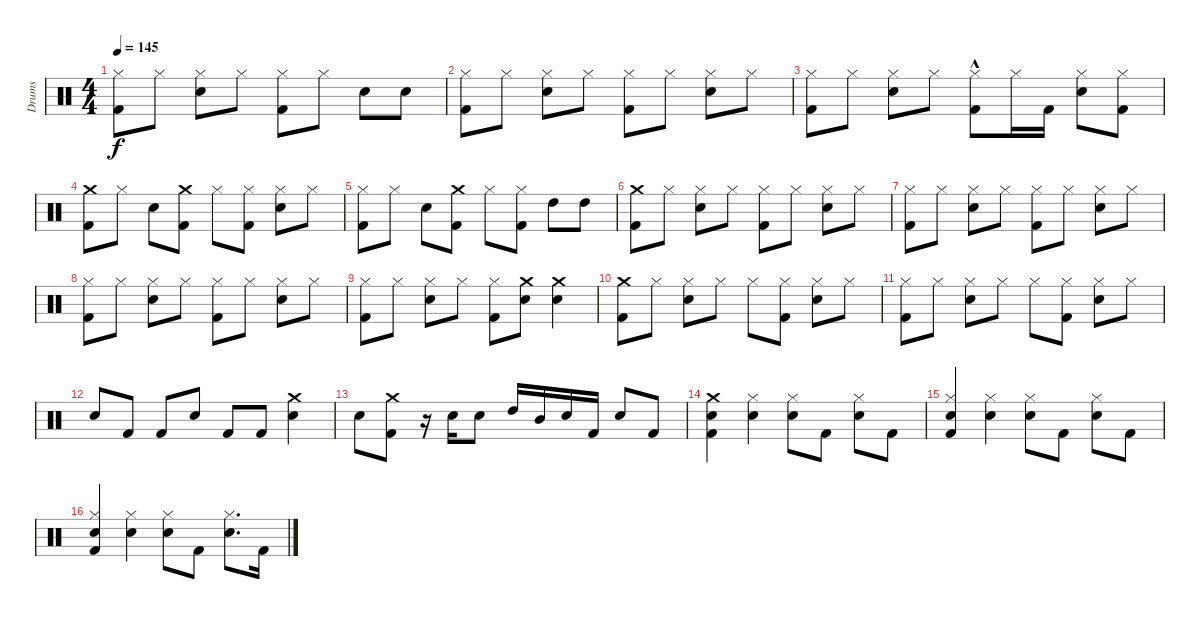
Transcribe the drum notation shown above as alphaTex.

\track ("Drums" "Drums") {instrument percussion}
\staff {score}
\articulation defaults
\ts (4 4)
\tempo 145
\clef neutral
\ks c
("Kick (hit) 2" "Hi-Hat (closed)").8{dy f} "Hi-Hat (closed)".8 ("Snare (hit) 2" "Hi-Hat (closed)").8 "Hi-Hat (closed)".8 ("Kick (hit) 2" "Hi-Hat (closed)").8 "Hi-Hat (closed)".8 "Snare (hit) 2".8 "Snare (hit) 2".8 |
("Kick (hit) 2" "Hi-Hat (closed)").8 "Hi-Hat (closed)".8 ("Snare (hit) 2" "Hi-Hat (closed)").8 "Hi-Hat (closed)".8 ("Kick (hit) 2" "Hi-Hat (closed)").8 "Hi-Hat (closed)".8 ("Snare (hit) 2" "Hi-Hat (closed)").8 "Hi-Hat (closed)".8 |
("Kick (hit) 2" "Hi-Hat (closed)").8 "Hi-Hat (closed)".8 ("Snare (hit) 2" "Hi-Hat (closed)").8 "Hi-Hat (closed)".8 ("Kick (hit) 2"{hac} "Hi-Hat (closed)").8 "Hi-Hat (closed)".16 "Kick (hit) 2".16 ("Snare (hit) 2" "Hi-Hat (closed)").8 ("Kick (hit) 2" "Hi-Hat (closed)").8 |
("Kick (hit) 2" "Crash medium (hit)").8 "Hi-Hat (closed)".8 "Snare (hit) 2".8 ("Kick (hit) 2" "Crash medium (hit)").8 "Hi-Hat (closed)".8 ("Kick (hit) 2" "Hi-Hat (closed)").8 ("Snare (hit) 2" "Hi-Hat (closed)").8 "Hi-Hat (closed)".8 |
("Hi-Hat (closed)" "Kick (hit) 2").8 "Hi-Hat (closed)".8 "Snare (hit) 2".8 ("Kick (hit) 2" "Crash medium (hit)").8 "Hi-Hat (closed)".8 ("Kick (hit) 2" "Hi-Hat (closed)").8 "High Tom (hit)".8 "High Tom (hit)".8 |
("Crash medium (hit)" "Kick (hit) 2").8 "Hi-Hat (closed)".8 ("Snare (hit) 2" "Hi-Hat (closed)").8 "Hi-Hat (closed)".8 ("Hi-Hat (closed)" "Kick (hit) 2").8 "Hi-Hat (closed)".8 ("Snare (hit) 2" "Hi-Hat (closed)").8 "Hi-Hat (closed)".8 |
("Hi-Hat (closed)" "Kick (hit) 2").8 "Hi-Hat (closed)".8 ("Hi-Hat (closed)" "Snare (hit) 2").8 "Hi-Hat (closed)".8 ("Hi-Hat (closed)" "Kick (hit) 2").8 "Hi-Hat (closed)".8 ("Hi-Hat (closed)" "Snare (hit) 2").8 "Hi-Hat (closed)".8 |
("Hi-Hat (closed)" "Kick (hit) 2").8 "Hi-Hat (closed)".8 ("Hi-Hat (closed)" "Snare (hit) 2").8 "Hi-Hat (closed)".8 ("Hi-Hat (closed)" "Kick (hit) 2").8 "Hi-Hat (closed)".8 ("Hi-Hat (closed)" "Snare (hit) 2").8 "Hi-Hat (closed)".8 |
("Hi-Hat (closed)" "Kick (hit) 2").8 "Hi-Hat (closed)".8 ("Hi-Hat (closed)" "Snare (hit) 2").8 "Hi-Hat (closed)".8 ("Hi-Hat (closed)" "Kick (hit) 2").8 ("Snare (hit) 2" "Crash medium (hit)").8 ("Crash medium (hit)" "Snare (hit) 2").4 |
("Kick (hit) 2" "Crash medium (hit)").8 "Hi-Hat (closed)".8 ("Snare (hit) 2" "Hi-Hat (closed)").8 "Hi-Hat (closed)".8 "Hi-Hat (closed)".8 ("Kick (hit) 2" "Hi-Hat (closed)").8 ("Snare (hit) 2" "Hi-Hat (closed)").8 "Hi-Hat (closed)".8 |
("Kick (hit) 2" "Hi-Hat (closed)").8 "Hi-Hat (closed)".8 ("Snare (hit) 2" "Hi-Hat (closed)").8 "Hi-Hat (closed)".8 "Hi-Hat (closed)".8 ("Kick (hit) 2" "Hi-Hat (closed)").8 ("Snare (hit) 2" "Hi-Hat (closed)").8 "Hi-Hat (closed)".8 |
"Snare (hit) 2".8 "Kick (hit) 2".8 "Kick (hit) 2".8 "Snare (hit) 2".8 "Kick (hit) 2".8 "Kick (hit) 2".8 ("Crash medium (hit)" "Snare (hit) 2").4 |
"Snare (hit) 2".8 ("Kick (hit) 2" "Crash medium (hit)").8 r.16 "Snare (hit) 2".16 "Snare (hit) 2".8 "High Tom (hit)".16 "Mid Tom (hit)".16 "Snare (hit) 2".16 "Kick (hit) 2".16 "Snare (hit) 2".8 "Kick (hit) 2".8 |
("Crash medium (hit)" "Snare (hit) 2" "Kick (hit) 2").4 ("Hi-Hat (closed)" "Snare (hit) 2").4 ("Hi-Hat (closed)" "Snare (hit) 2").8 "Kick (hit) 2".8 ("Hi-Hat (closed)" "Snare (hit) 2").8 "Kick (hit) 2".8 |
("Hi-Hat (closed)" "Snare (hit) 2" "Kick (hit) 2").4 ("Hi-Hat (closed)" "Snare (hit) 2").4 ("Hi-Hat (closed)" "Snare (hit) 2").8 "Kick (hit) 2".8 ("Hi-Hat (closed)" "Snare (hit) 2").8 "Kick (hit) 2".8 |
("Hi-Hat (closed)" "Snare (hit) 2" "Kick (hit) 2").4 ("Hi-Hat (closed)" "Snare (hit) 2").4 ("Hi-Hat (closed)" "Snare (hit) 2").8 "Kick (hit) 2".8 ("Hi-Hat (closed)" "Snare (hit) 2").8{d} "Kick (hit) 2".16
